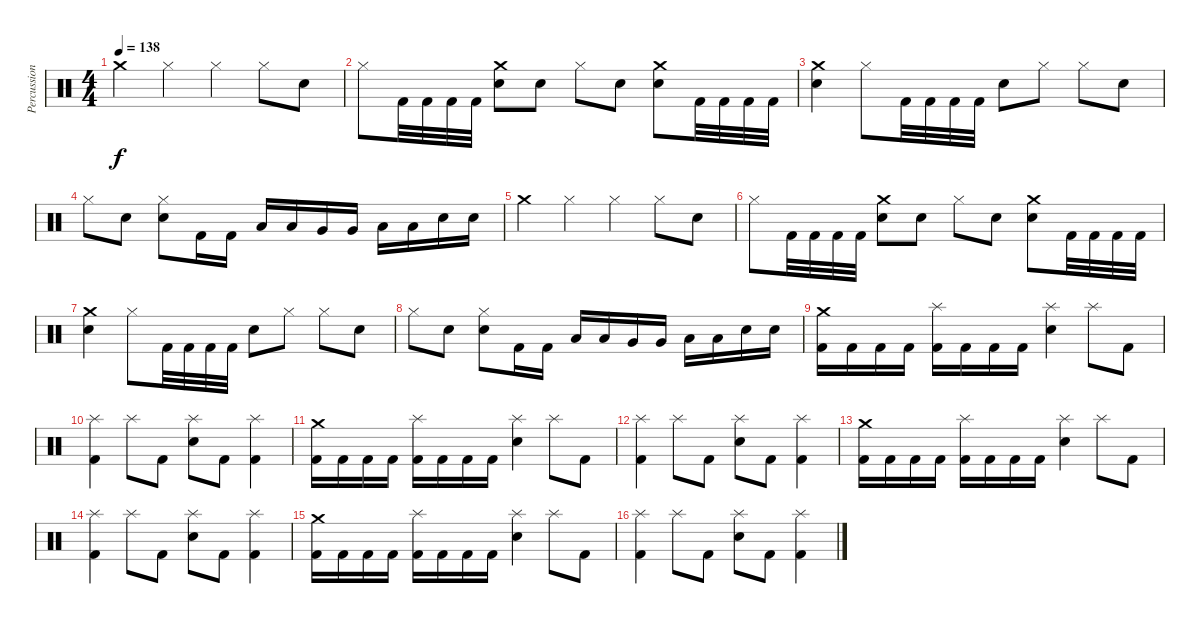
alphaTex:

\track ("Percussion" "Percussion") {instrument percussion}
\staff {score}
\articulation defaults
\ts (4 4)
\tempo 138
\clef neutral
\ks c "Crash medium (hit)".4{dy f} "Hi-Hat (closed)".4 "Hi-Hat (closed)".4 "Hi-Hat (closed)".8 "Snare (hit) 2".8
|
"Hi-Hat (closed)".8 "Kick (hit) 2".32 "Kick (hit) 2".32 "Kick (hit) 2".32 "Kick (hit) 2".32 ("Crash medium (hit)" "Snare (hit) 2").8 "Snare (hit) 2".8 "Hi-Hat (closed)".8 "Snare (hit) 2".8 ("Crash medium (hit)" "Snare (hit) 2").8 "Kick (hit) 2".32 "Kick (hit) 2".32 "Kick (hit) 2".32 "Kick (hit) 2".32 |
("Crash medium (hit)" "Snare (hit) 2").4 "Hi-Hat (closed)".8 "Kick (hit) 2".32 "Kick (hit) 2".32 "Kick (hit) 2".32 "Kick (hit) 2".32 "Snare (hit) 2".8 "Hi-Hat (closed)".8 "Hi-Hat (closed)".8 "Snare (hit) 2".8 |
"Hi-Hat (closed)".8 "Snare (hit) 2".8 ("Hi-Hat (closed)" "Snare (hit) 2").8 "Kick (hit) 2".16 "Kick (hit) 2".16 "Low Tom (hit)".16 "Low Tom (hit)".16 "Very Low Tom (hit)".16 "Very Low Tom (hit)".16 "Low Floor Tom (hit)".16 "Low Floor Tom (hit)".16 "Electric Snare (hit)".16 "Electric Snare (hit)".16 |
"Crash medium (hit)".4 "Hi-Hat (closed)".4 "Hi-Hat (closed)".4 "Hi-Hat (closed)".8 "Snare (hit) 2".8 |
"Hi-Hat (closed)".8 "Kick (hit) 2".32 "Kick (hit) 2".32 "Kick (hit) 2".32 "Kick (hit) 2".32 ("Crash medium (hit)" "Snare (hit) 2").8 "Snare (hit) 2".8 "Hi-Hat (closed)".8 "Snare (hit) 2".8 ("Crash medium (hit)" "Snare (hit) 2").8 "Kick (hit) 2".32 "Kick (hit) 2".32 "Kick (hit) 2".32 "Kick (hit) 2".32 |
("Crash medium (hit)" "Snare (hit) 2").4 "Hi-Hat (closed)".8 "Kick (hit) 2".32 "Kick (hit) 2".32 "Kick (hit) 2".32 "Kick (hit) 2".32 "Snare (hit) 2".8 "Hi-Hat (closed)".8 "Hi-Hat (closed)".8 "Snare (hit) 2".8 |
"Hi-Hat (closed)".8 "Snare (hit) 2".8 ("Hi-Hat (closed)" "Snare (hit) 2").8 "Kick (hit) 2".16 "Kick (hit) 2".16 "Low Tom (hit)".16 "Low Tom (hit)".16 "Very Low Tom (hit)".16 "Very Low Tom (hit)".16 "Low Floor Tom (hit)".16 "Low Floor Tom (hit)".16 "Electric Snare (hit)".16 "Electric Snare (hit)".16 |
("Crash medium (hit)" "Kick (hit) 2").16 "Kick (hit) 2".16 "Kick (hit) 2".16 "Kick (hit) 2".16 ("Splash (hit)" "Kick (hit) 2").16 "Kick (hit) 2".16 "Kick (hit) 2".16 "Kick (hit) 2".16 ("Splash (hit)" "Snare (hit) 2").4 "Splash (hit)".8 "Kick (hit) 2".8 |
("Splash (hit)" "Kick (hit) 2").4 "Splash (hit)".8 "Kick (hit) 2".8 ("Splash (hit)" "Snare (hit) 2").8 "Kick (hit) 2".8 ("Splash (hit)" "Kick (hit) 2").4 |
("Crash medium (hit)" "Kick (hit) 2").16 "Kick (hit) 2".16 "Kick (hit) 2".16 "Kick (hit) 2".16 ("Splash (hit)" "Kick (hit) 2").16 "Kick (hit) 2".16 "Kick (hit) 2".16 "Kick (hit) 2".16 ("Splash (hit)" "Snare (hit) 2").4 "Splash (hit)".8 "Kick (hit) 2".8 |
("Splash (hit)" "Kick (hit) 2").4 "Splash (hit)".8 "Kick (hit) 2".8 ("Splash (hit)" "Snare (hit) 2").8 "Kick (hit) 2".8 ("Splash (hit)" "Kick (hit) 2").4 |
("Crash medium (hit)" "Kick (hit) 2").16 "Kick (hit) 2".16 "Kick (hit) 2".16 "Kick (hit) 2".16 ("Splash (hit)" "Kick (hit) 2").16 "Kick (hit) 2".16 "Kick (hit) 2".16 "Kick (hit) 2".16 ("Splash (hit)" "Snare (hit) 2").4 "Splash (hit)".8 "Kick (hit) 2".8 |
("Splash (hit)" "Kick (hit) 2").4 "Splash (hit)".8 "Kick (hit) 2".8 ("Splash (hit)" "Snare (hit) 2").8 "Kick (hit) 2".8 ("Splash (hit)" "Kick (hit) 2").4 |
("Crash medium (hit)" "Kick (hit) 2").16 "Kick (hit) 2".16 "Kick (hit) 2".16 "Kick (hit) 2".16 ("Splash (hit)" "Kick (hit) 2").16 "Kick (hit) 2".16 "Kick (hit) 2".16 "Kick (hit) 2".16 ("Splash (hit)" "Snare (hit) 2").4 "Splash (hit)".8 "Kick (hit) 2".8 |
("Splash (hit)" "Kick (hit) 2").4 "Splash (hit)".8 "Kick (hit) 2".8 ("Splash (hit)" "Snare (hit) 2").8 "Kick (hit) 2".8 ("Splash (hit)" "Kick (hit) 2").4
